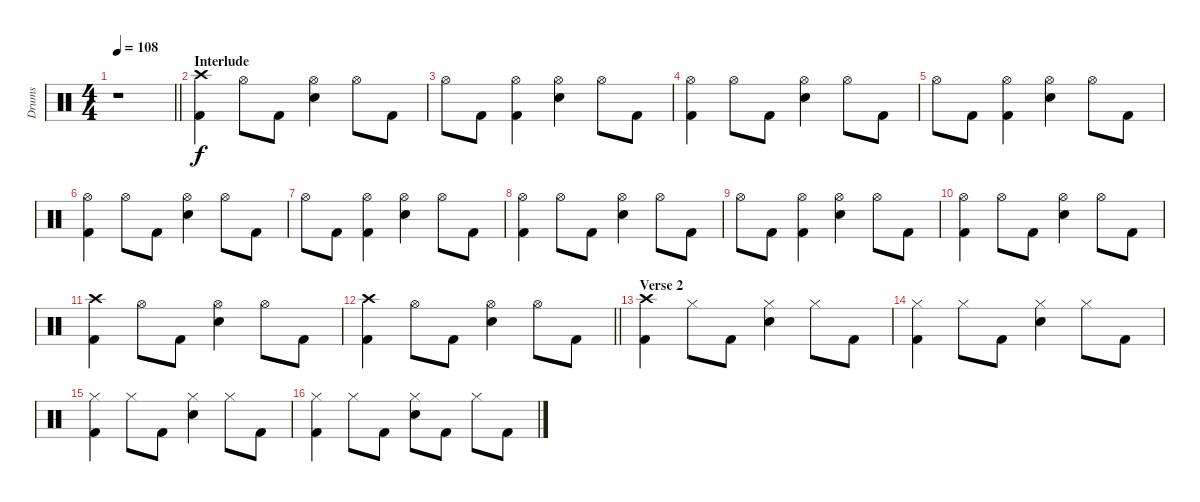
\track ("Drums" "Drums") {instrument percussion}
\staff {score}
\articulation defaults
\ts (4 4)
\tempo 108
\clef neutral
\barLineRight lightlight
\ks c
r.1{dy f} |
\section ("" "Interlude")
("Crash high (hit)" "Kick (hit) 2").4 "Hi-Hat (open)".8 "Kick (hit) 2".8 ("Hi-Hat (open)" "Electric Snare (hit)").4 "Hi-Hat (open)".8 "Kick (hit) 2".8 |
"Hi-Hat (open)".8 "Kick (hit) 2".8 ("Hi-Hat (open)" "Kick (hit) 2").4 ("Hi-Hat (open)" "Electric Snare (hit)").4 "Hi-Hat (open)".8 "Kick (hit) 2".8 |
("Hi-Hat (open)" "Kick (hit) 2").4 "Hi-Hat (open)".8 "Kick (hit) 2".8 ("Hi-Hat (open)" "Electric Snare (hit)").4 "Hi-Hat (open)".8 "Kick (hit) 2".8 |
"Hi-Hat (open)".8 "Kick (hit) 2".8 ("Hi-Hat (open)" "Kick (hit) 2").4 ("Hi-Hat (open)" "Electric Snare (hit)").4 "Hi-Hat (open)".8 "Kick (hit) 2".8 |
("Hi-Hat (open)" "Kick (hit) 2").4 "Hi-Hat (open)".8 "Kick (hit) 2".8 ("Hi-Hat (open)" "Electric Snare (hit)").4 "Hi-Hat (open)".8 "Kick (hit) 2".8 |
"Hi-Hat (open)".8 "Kick (hit) 2".8 ("Hi-Hat (open)" "Kick (hit) 2").4 ("Hi-Hat (open)" "Electric Snare (hit)").4 "Hi-Hat (open)".8 "Kick (hit) 2".8 |
("Hi-Hat (open)" "Kick (hit) 2").4 "Hi-Hat (open)".8 "Kick (hit) 2".8 ("Hi-Hat (open)" "Electric Snare (hit)").4 "Hi-Hat (open)".8 "Kick (hit) 2".8 |
"Hi-Hat (open)".8 "Kick (hit) 2".8 ("Hi-Hat (open)" "Kick (hit) 2").4 ("Hi-Hat (open)" "Electric Snare (hit)").4 "Hi-Hat (open)".8 "Kick (hit) 2".8 |
("Hi-Hat (open)" "Kick (hit) 2").4 "Hi-Hat (open)".8 "Kick (hit) 2".8 ("Hi-Hat (open)" "Electric Snare (hit)").4 "Hi-Hat (open)".8 "Kick (hit) 2".8 |
("Crash high (hit)" "Kick (hit) 2").4 "Hi-Hat (open)".8 "Kick (hit) 2".8 ("Hi-Hat (open)" "Electric Snare (hit)").4 "Hi-Hat (open)".8 "Kick (hit) 2".8 |
\barLineRight lightlight
("Crash high (hit)" "Kick (hit) 2").4 "Hi-Hat (open)".8 "Kick (hit) 2".8 ("Hi-Hat (open)" "Electric Snare (hit)").4 "Hi-Hat (open)".8 "Kick (hit) 2".8 |
\section ("" "Verse 2")
("Crash high (hit)" "Kick (hit) 2").4 "Hi-Hat (closed)".8 "Kick (hit) 2".8 ("Hi-Hat (closed)" "Electric Snare (hit)").4 "Hi-Hat (closed)".8 "Kick (hit) 2".8 |
("Hi-Hat (closed)" "Kick (hit) 2").4 "Hi-Hat (closed)".8 "Kick (hit) 2".8 ("Hi-Hat (closed)" "Electric Snare (hit)").4 "Hi-Hat (closed)".8 "Kick (hit) 2".8 |
("Hi-Hat (closed)" "Kick (hit) 2").4 "Hi-Hat (closed)".8 "Kick (hit) 2".8 ("Hi-Hat (closed)" "Electric Snare (hit)").4 "Hi-Hat (closed)".8 "Kick (hit) 2".8 |
("Hi-Hat (closed)" "Kick (hit) 2").4 "Hi-Hat (closed)".8 "Kick (hit) 2".8 ("Hi-Hat (closed)" "Electric Snare (hit)").8 "Kick (hit) 2".8 "Hi-Hat (closed)".8 "Kick (hit) 2".8
